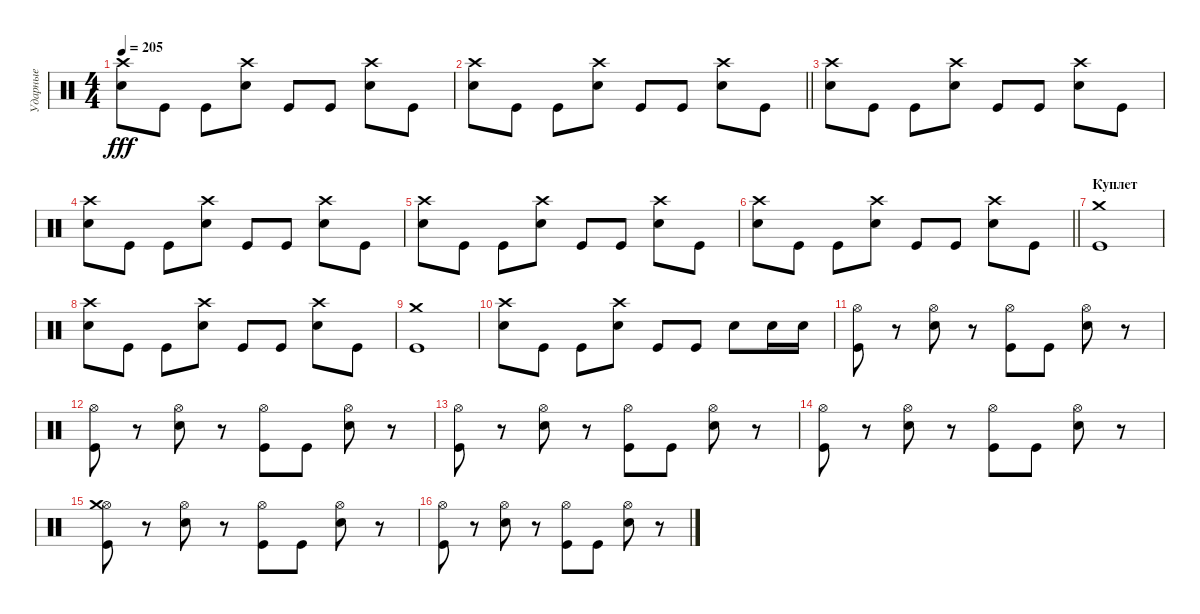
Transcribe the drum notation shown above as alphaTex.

\track ("Ударные" "Ударные") {instrument percussion}
\staff {score}
\articulation defaults
\ts (4 4)
\tempo 205
\clef neutral
\ks c
("Crash high (hit)" "Electric Snare (hit)").8{dy fff} "Kick (hit)".8 "Kick (hit)".8 ("Crash high (hit)" "Electric Snare (hit)").8 "Kick (hit)".8 "Kick (hit)".8 ("Crash high (hit)" "Electric Snare (hit)").8 "Kick (hit)".8 |
\barLineRight lightlight
("Crash high (hit)" "Electric Snare (hit)").8 "Kick (hit)".8 "Kick (hit)".8 ("Crash high (hit)" "Electric Snare (hit)").8 "Kick (hit)".8 "Kick (hit)".8 ("Crash high (hit)" "Electric Snare (hit)").8 "Kick (hit)".8 |
("Crash high (hit)" "Electric Snare (hit)").8 "Kick (hit)".8 "Kick (hit)".8 ("Crash high (hit)" "Electric Snare (hit)").8 "Kick (hit)".8 "Kick (hit)".8 ("Crash high (hit)" "Electric Snare (hit)").8 "Kick (hit)".8 |
("Crash high (hit)" "Electric Snare (hit)").8 "Kick (hit)".8 "Kick (hit)".8 ("Crash high (hit)" "Electric Snare (hit)").8 "Kick (hit)".8 "Kick (hit)".8 ("Crash high (hit)" "Electric Snare (hit)").8 "Kick (hit)".8 |
("Crash high (hit)" "Electric Snare (hit)").8 "Kick (hit)".8 "Kick (hit)".8 ("Crash high (hit)" "Electric Snare (hit)").8 "Kick (hit)".8 "Kick (hit)".8 ("Crash high (hit)" "Electric Snare (hit)").8 "Kick (hit)".8 |
\barLineRight lightlight
("Crash high (hit)" "Electric Snare (hit)").8 "Kick (hit)".8 "Kick (hit)".8 ("Crash high (hit)" "Electric Snare (hit)").8 "Kick (hit)".8 "Kick (hit)".8 ("Crash high (hit)" "Electric Snare (hit)").8 "Kick (hit)".8 |
\section ("" "Куплет")
("Crash medium (hit)" "Kick (hit)").1 |
("Crash high (hit)" "Electric Snare (hit)").8 "Kick (hit)".8 "Kick (hit)".8 ("Crash high (hit)" "Electric Snare (hit)").8 "Kick (hit)".8 "Kick (hit)".8 ("Crash high (hit)" "Electric Snare (hit)").8 "Kick (hit)".8 |
("Crash medium (hit)" "Kick (hit)").1 |
("Crash high (hit)" "Electric Snare (hit)").8 "Kick (hit)".8 "Kick (hit)".8 ("Crash high (hit)" "Electric Snare (hit)").8 "Kick (hit)".8 "Kick (hit)".8 "Electric Snare (hit)".8 "Electric Snare (hit)".16 "Electric Snare (hit)".16 |
("Hi-Hat (open)" "Kick (hit)").8 r.8 ("Hi-Hat (open)" "Electric Snare (hit)").8 r.8 ("Hi-Hat (open)" "Kick (hit)").8 "Kick (hit)".8 ("Hi-Hat (open)" "Electric Snare (hit)").8 r.8 |
("Hi-Hat (open)" "Kick (hit)").8 r.8 ("Hi-Hat (open)" "Electric Snare (hit)").8 r.8 ("Hi-Hat (open)" "Kick (hit)").8 "Kick (hit)".8 ("Hi-Hat (open)" "Electric Snare (hit)").8 r.8 |
("Hi-Hat (open)" "Kick (hit)").8 r.8 ("Hi-Hat (open)" "Electric Snare (hit)").8 r.8 ("Hi-Hat (open)" "Kick (hit)").8 "Kick (hit)".8 ("Hi-Hat (open)" "Electric Snare (hit)").8 r.8 |
("Hi-Hat (open)" "Kick (hit)").8 r.8 ("Hi-Hat (open)" "Electric Snare (hit)").8 r.8 ("Hi-Hat (open)" "Kick (hit)").8 "Kick (hit)".8 ("Hi-Hat (open)" "Electric Snare (hit)").8 r.8 |
("Hi-Hat (open)" "Kick (hit)" "Crash medium (hit)").8 r.8 ("Hi-Hat (open)" "Electric Snare (hit)").8 r.8 ("Hi-Hat (open)" "Kick (hit)").8 "Kick (hit)".8 ("Hi-Hat (open)" "Electric Snare (hit)").8 r.8 |
("Hi-Hat (open)" "Kick (hit)").8 r.8 ("Hi-Hat (open)" "Electric Snare (hit)").8 r.8 ("Hi-Hat (open)" "Kick (hit)").8 "Kick (hit)".8 ("Hi-Hat (open)" "Electric Snare (hit)").8 r.8
